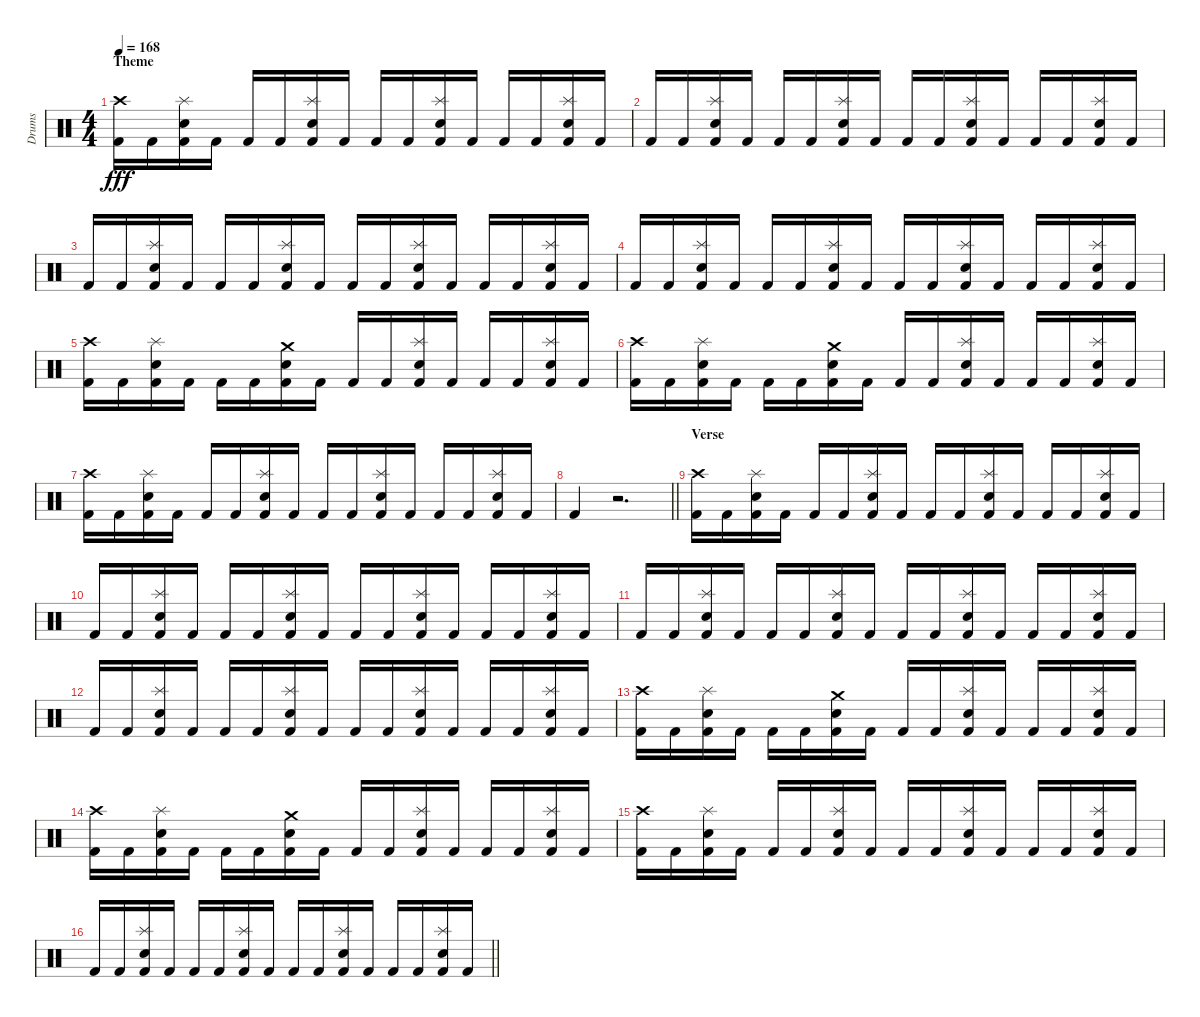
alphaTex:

\track ("Drums" "Drums") {instrument percussion}
\staff {score}
\articulation defaults
\ts (4 4)
\section ("" "Theme")
\tempo 168
\clef neutral
\ks aminor
("Crash high (hit)" "Kick (hit) 2").16{dy fff} "Kick (hit) 2".16 ("Splash (hit)" "Snare (hit) 2" "Kick (hit) 2").16 "Kick (hit) 2".16 "Kick (hit) 2".16 "Kick (hit) 2".16 ("Splash (hit)" "Snare (hit) 2" "Kick (hit) 2").16 "Kick (hit) 2".16 "Kick (hit) 2".16 "Kick (hit) 2".16 ("Splash (hit)" "Snare (hit) 2" "Kick (hit) 2").16 "Kick (hit) 2".16 "Kick (hit) 2".16 "Kick (hit) 2".16 ("Splash (hit)" "Snare (hit) 2" "Kick (hit) 2").16 "Kick (hit) 2".16 |
"Kick (hit) 2".16 "Kick (hit) 2".16 ("Splash (hit)" "Snare (hit) 2" "Kick (hit) 2").16 "Kick (hit) 2".16 "Kick (hit) 2".16 "Kick (hit) 2".16 ("Splash (hit)" "Snare (hit) 2" "Kick (hit) 2").16 "Kick (hit) 2".16 "Kick (hit) 2".16 "Kick (hit) 2".16 ("Splash (hit)" "Snare (hit) 2" "Kick (hit) 2").16 "Kick (hit) 2".16 "Kick (hit) 2".16 "Kick (hit) 2".16 ("Splash (hit)" "Snare (hit) 2" "Kick (hit) 2").16 "Kick (hit) 2".16 |
"Kick (hit) 2".16 "Kick (hit) 2".16 ("Splash (hit)" "Snare (hit) 2" "Kick (hit) 2").16 "Kick (hit) 2".16 "Kick (hit) 2".16 "Kick (hit) 2".16 ("Splash (hit)" "Snare (hit) 2" "Kick (hit) 2").16 "Kick (hit) 2".16 "Kick (hit) 2".16 "Kick (hit) 2".16 ("Splash (hit)" "Snare (hit) 2" "Kick (hit) 2").16 "Kick (hit) 2".16 "Kick (hit) 2".16 "Kick (hit) 2".16 ("Splash (hit)" "Snare (hit) 2" "Kick (hit) 2").16 "Kick (hit) 2".16 |
"Kick (hit) 2".16 "Kick (hit) 2".16 ("Splash (hit)" "Snare (hit) 2" "Kick (hit) 2").16 "Kick (hit) 2".16 "Kick (hit) 2".16 "Kick (hit) 2".16 ("Splash (hit)" "Snare (hit) 2" "Kick (hit) 2").16 "Kick (hit) 2".16 "Kick (hit) 2".16 "Kick (hit) 2".16 ("Splash (hit)" "Snare (hit) 2" "Kick (hit) 2").16 "Kick (hit) 2".16 "Kick (hit) 2".16 "Kick (hit) 2".16 ("Splash (hit)" "Snare (hit) 2" "Kick (hit) 2").16 "Kick (hit) 2".16 |
("Crash high (hit)" "Kick (hit) 2").16 "Kick (hit) 2".16 ("Splash (hit)" "Snare (hit) 2" "Kick (hit) 2").16 "Kick (hit) 2".16 "Kick (hit) 2".16 "Kick (hit) 2".16 ("Crash medium (hit)" "Snare (hit) 2" "Kick (hit) 2").16 "Kick (hit) 2".16 "Kick (hit) 2".16 "Kick (hit) 2".16 ("Splash (hit)" "Snare (hit) 2" "Kick (hit) 2").16 "Kick (hit) 2".16 "Kick (hit) 2".16 "Kick (hit) 2".16 ("Splash (hit)" "Snare (hit) 2" "Kick (hit) 2").16 "Kick (hit) 2".16 |
("Crash high (hit)" "Kick (hit) 2").16 "Kick (hit) 2".16 ("Splash (hit)" "Snare (hit) 2" "Kick (hit) 2").16 "Kick (hit) 2".16 "Kick (hit) 2".16 "Kick (hit) 2".16 ("Crash medium (hit)" "Snare (hit) 2" "Kick (hit) 2").16 "Kick (hit) 2".16 "Kick (hit) 2".16 "Kick (hit) 2".16 ("Splash (hit)" "Snare (hit) 2" "Kick (hit) 2").16 "Kick (hit) 2".16 "Kick (hit) 2".16 "Kick (hit) 2".16 ("Splash (hit)" "Snare (hit) 2" "Kick (hit) 2").16 "Kick (hit) 2".16 |
("Crash high (hit)" "Kick (hit) 2").16 "Kick (hit) 2".16 ("Splash (hit)" "Snare (hit) 2" "Kick (hit) 2").16 "Kick (hit) 2".16 "Kick (hit) 2".16 "Kick (hit) 2".16 ("Splash (hit)" "Snare (hit) 2" "Kick (hit) 2").16 "Kick (hit) 2".16 "Kick (hit) 2".16 "Kick (hit) 2".16 ("Splash (hit)" "Snare (hit) 2" "Kick (hit) 2").16 "Kick (hit) 2".16 "Kick (hit) 2".16 "Kick (hit) 2".16 ("Splash (hit)" "Snare (hit) 2" "Kick (hit) 2").16 "Kick (hit) 2".16 |
\barLineRight lightlight "Kick (hit) 2".4
r.2{d} |
\section ("" "Verse")
("Crash high (hit)" "Kick (hit) 2").16 "Kick (hit) 2".16 ("Splash (hit)" "Snare (hit) 2" "Kick (hit) 2").16 "Kick (hit) 2".16 "Kick (hit) 2".16 "Kick (hit) 2".16 ("Splash (hit)" "Snare (hit) 2" "Kick (hit) 2").16 "Kick (hit) 2".16 "Kick (hit) 2".16 "Kick (hit) 2".16 ("Splash (hit)" "Snare (hit) 2" "Kick (hit) 2").16 "Kick (hit) 2".16 "Kick (hit) 2".16 "Kick (hit) 2".16 ("Splash (hit)" "Snare (hit) 2" "Kick (hit) 2").16 "Kick (hit) 2".16 |
"Kick (hit) 2".16 "Kick (hit) 2".16 ("Splash (hit)" "Snare (hit) 2" "Kick (hit) 2").16 "Kick (hit) 2".16 "Kick (hit) 2".16 "Kick (hit) 2".16 ("Splash (hit)" "Snare (hit) 2" "Kick (hit) 2").16 "Kick (hit) 2".16 "Kick (hit) 2".16 "Kick (hit) 2".16 ("Splash (hit)" "Snare (hit) 2" "Kick (hit) 2").16 "Kick (hit) 2".16 "Kick (hit) 2".16 "Kick (hit) 2".16 ("Splash (hit)" "Snare (hit) 2" "Kick (hit) 2").16 "Kick (hit) 2".16 |
"Kick (hit) 2".16 "Kick (hit) 2".16 ("Splash (hit)" "Snare (hit) 2" "Kick (hit) 2").16 "Kick (hit) 2".16 "Kick (hit) 2".16 "Kick (hit) 2".16 ("Splash (hit)" "Snare (hit) 2" "Kick (hit) 2").16 "Kick (hit) 2".16 "Kick (hit) 2".16 "Kick (hit) 2".16 ("Splash (hit)" "Snare (hit) 2" "Kick (hit) 2").16 "Kick (hit) 2".16 "Kick (hit) 2".16 "Kick (hit) 2".16 ("Splash (hit)" "Snare (hit) 2" "Kick (hit) 2").16 "Kick (hit) 2".16 |
"Kick (hit) 2".16 "Kick (hit) 2".16 ("Splash (hit)" "Snare (hit) 2" "Kick (hit) 2").16 "Kick (hit) 2".16 "Kick (hit) 2".16 "Kick (hit) 2".16 ("Splash (hit)" "Snare (hit) 2" "Kick (hit) 2").16 "Kick (hit) 2".16 "Kick (hit) 2".16 "Kick (hit) 2".16 ("Splash (hit)" "Snare (hit) 2" "Kick (hit) 2").16 "Kick (hit) 2".16 "Kick (hit) 2".16 "Kick (hit) 2".16 ("Splash (hit)" "Snare (hit) 2" "Kick (hit) 2").16 "Kick (hit) 2".16 |
("Crash high (hit)" "Kick (hit) 2").16 "Kick (hit) 2".16 ("Splash (hit)" "Snare (hit) 2" "Kick (hit) 2").16 "Kick (hit) 2".16 "Kick (hit) 2".16 "Kick (hit) 2".16 ("Crash medium (hit)" "Snare (hit) 2" "Kick (hit) 2").16 "Kick (hit) 2".16 "Kick (hit) 2".16 "Kick (hit) 2".16 ("Splash (hit)" "Snare (hit) 2" "Kick (hit) 2").16 "Kick (hit) 2".16 "Kick (hit) 2".16 "Kick (hit) 2".16 ("Splash (hit)" "Snare (hit) 2" "Kick (hit) 2").16 "Kick (hit) 2".16 |
("Crash high (hit)" "Kick (hit) 2").16 "Kick (hit) 2".16 ("Splash (hit)" "Snare (hit) 2" "Kick (hit) 2").16 "Kick (hit) 2".16 "Kick (hit) 2".16 "Kick (hit) 2".16 ("Crash medium (hit)" "Snare (hit) 2" "Kick (hit) 2").16 "Kick (hit) 2".16 "Kick (hit) 2".16 "Kick (hit) 2".16 ("Splash (hit)" "Snare (hit) 2" "Kick (hit) 2").16 "Kick (hit) 2".16 "Kick (hit) 2".16 "Kick (hit) 2".16 ("Splash (hit)" "Snare (hit) 2" "Kick (hit) 2").16 "Kick (hit) 2".16 |
("Crash high (hit)" "Kick (hit) 2").16 "Kick (hit) 2".16 ("Splash (hit)" "Snare (hit) 2" "Kick (hit) 2").16 "Kick (hit) 2".16 "Kick (hit) 2".16 "Kick (hit) 2".16 ("Splash (hit)" "Snare (hit) 2" "Kick (hit) 2").16 "Kick (hit) 2".16 "Kick (hit) 2".16 "Kick (hit) 2".16 ("Splash (hit)" "Snare (hit) 2" "Kick (hit) 2").16 "Kick (hit) 2".16 "Kick (hit) 2".16 "Kick (hit) 2".16 ("Splash (hit)" "Snare (hit) 2" "Kick (hit) 2").16 "Kick (hit) 2".16 |
\barLineRight lightlight "Kick (hit) 2".16 "Kick (hit) 2".16
("Splash (hit)" "Snare (hit) 2" "Kick (hit) 2").16 "Kick (hit) 2".16 "Kick (hit) 2".16 "Kick (hit) 2".16 ("Splash (hit)" "Snare (hit) 2" "Kick (hit) 2").16 "Kick (hit) 2".16 "Kick (hit) 2".16 "Kick (hit) 2".16 ("Splash (hit)" "Snare (hit) 2" "Kick (hit) 2").16 "Kick (hit) 2".16 "Kick (hit) 2".16 "Kick (hit) 2".16 ("Splash (hit)" "Snare (hit) 2" "Kick (hit) 2").16 "Kick (hit) 2".16
